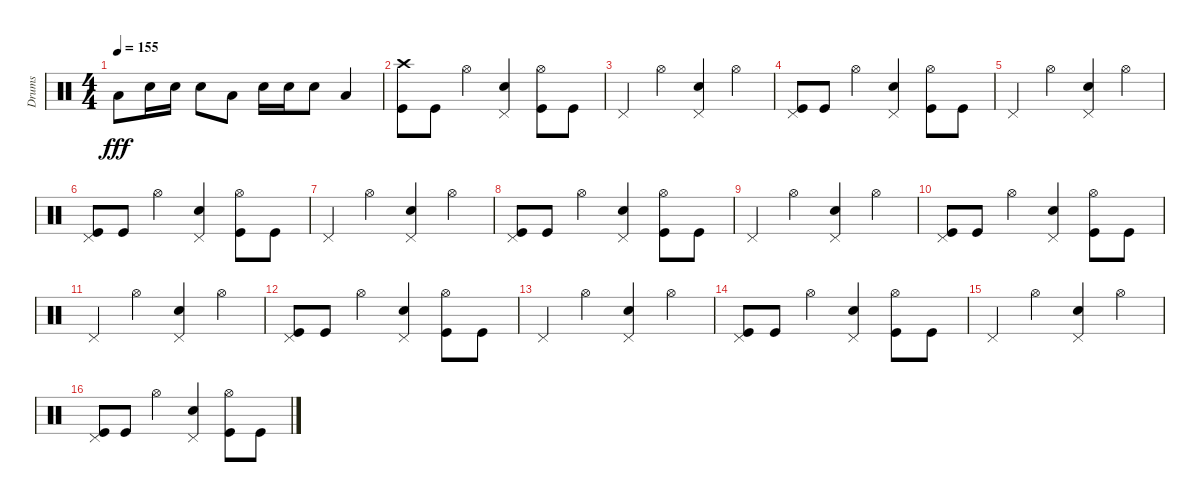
\track ("Drums               " "Drums     ") {instrument percussion}
\staff {score}
\articulation defaults
\ts (4 4)
\tempo 155
\clef neutral
\ks c "Low Tom (hit)".8{dy fff} "Snare (hit) 2".16 "Snare (hit) 2".16 "Snare (hit) 2".8 "Low Tom (hit)".8 "Snare (hit) 2".16 "Snare (hit) 2".16 "Snare (hit) 2".8 "Low Tom (hit)".4
|
("Kick (hit)" "Crash high (hit)").8 "Kick (hit)".8 "Hi-Hat (open)".4 ("Snare (hit) 2" "Pedal Hi-Hat (hit)").4 ("Kick (hit)" "Hi-Hat (open)").8 "Kick (hit)".8 |
"Pedal Hi-Hat (hit)".4 "Hi-Hat (open)".4 ("Pedal Hi-Hat (hit)" "Snare (hit) 2").4 "Hi-Hat (open)".4 |
("Kick (hit)" "Pedal Hi-Hat (hit)").8 "Kick (hit)".8 "Hi-Hat (open)".4 ("Snare (hit) 2" "Pedal Hi-Hat (hit)").4 ("Kick (hit)" "Hi-Hat (open)").8 "Kick (hit)".8 |
"Pedal Hi-Hat (hit)".4 "Hi-Hat (open)".4 ("Pedal Hi-Hat (hit)" "Snare (hit) 2").4 "Hi-Hat (open)".4 |
("Kick (hit)" "Pedal Hi-Hat (hit)").8 "Kick (hit)".8 "Hi-Hat (open)".4 ("Snare (hit) 2" "Pedal Hi-Hat (hit)").4 ("Kick (hit)" "Hi-Hat (open)").8 "Kick (hit)".8 |
"Pedal Hi-Hat (hit)".4 "Hi-Hat (open)".4 ("Pedal Hi-Hat (hit)" "Snare (hit) 2").4 "Hi-Hat (open)".4 |
("Kick (hit)" "Pedal Hi-Hat (hit)").8 "Kick (hit)".8 "Hi-Hat (open)".4 ("Snare (hit) 2" "Pedal Hi-Hat (hit)").4 ("Kick (hit)" "Hi-Hat (open)").8 "Kick (hit)".8 |
"Pedal Hi-Hat (hit)".4 "Hi-Hat (open)".4 ("Pedal Hi-Hat (hit)" "Snare (hit) 2").4 "Hi-Hat (open)".4 |
("Kick (hit)" "Pedal Hi-Hat (hit)").8 "Kick (hit)".8 "Hi-Hat (open)".4 ("Snare (hit) 2" "Pedal Hi-Hat (hit)").4 ("Kick (hit)" "Hi-Hat (open)").8 "Kick (hit)".8 |
"Pedal Hi-Hat (hit)".4 "Hi-Hat (open)".4 ("Pedal Hi-Hat (hit)" "Snare (hit) 2").4 "Hi-Hat (open)".4 |
("Kick (hit)" "Pedal Hi-Hat (hit)").8 "Kick (hit)".8 "Hi-Hat (open)".4 ("Snare (hit) 2" "Pedal Hi-Hat (hit)").4 ("Kick (hit)" "Hi-Hat (open)").8 "Kick (hit)".8 |
"Pedal Hi-Hat (hit)".4 "Hi-Hat (open)".4 ("Pedal Hi-Hat (hit)" "Snare (hit) 2").4 "Hi-Hat (open)".4 |
("Kick (hit)" "Pedal Hi-Hat (hit)").8 "Kick (hit)".8 "Hi-Hat (open)".4 ("Snare (hit) 2" "Pedal Hi-Hat (hit)").4 ("Kick (hit)" "Hi-Hat (open)").8 "Kick (hit)".8 |
"Pedal Hi-Hat (hit)".4 "Hi-Hat (open)".4 ("Pedal Hi-Hat (hit)" "Snare (hit) 2").4 "Hi-Hat (open)".4 |
("Kick (hit)" "Pedal Hi-Hat (hit)").8 "Kick (hit)".8 "Hi-Hat (open)".4 ("Snare (hit) 2" "Pedal Hi-Hat (hit)").4 ("Kick (hit)" "Hi-Hat (open)").8 "Kick (hit)".8
